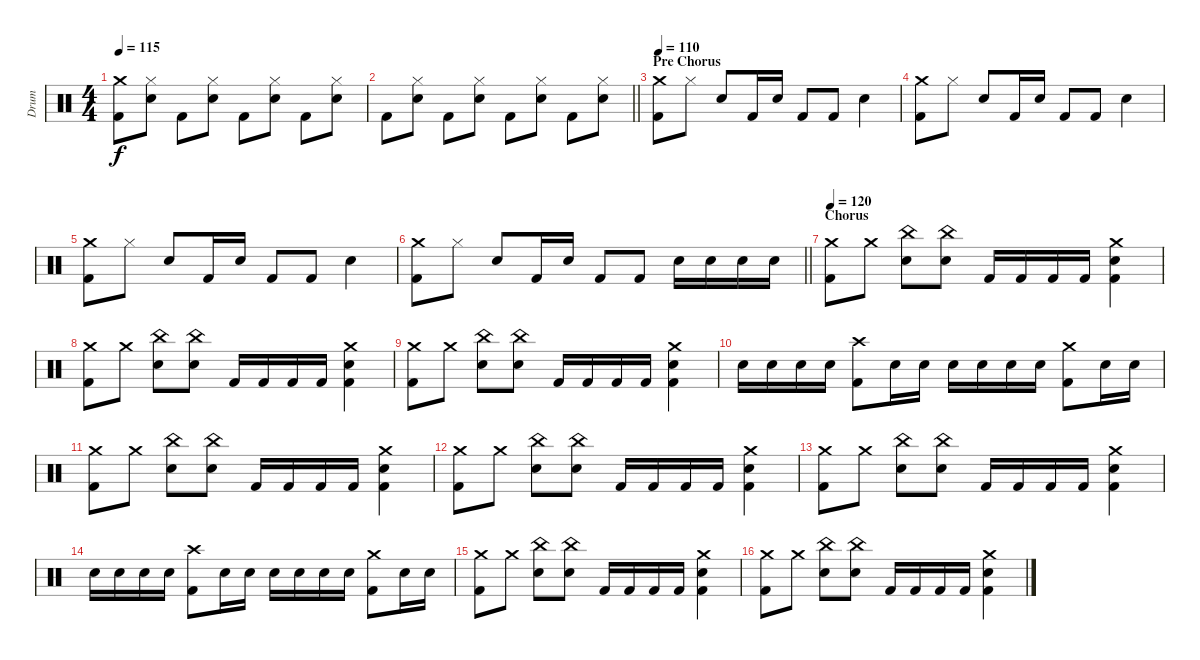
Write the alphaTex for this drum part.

\track ("Drum" "Drum") {instrument percussion}
\staff {score}
\articulation defaults
\ts (4 4)
\tempo 115
\clef neutral
\ks c
("Crash medium (hit)" "Kick (hit) 2").8{dy f} ("Hi-Hat (closed)" "Snare (hit) 2").8 "Kick (hit) 2".8 ("Hi-Hat (closed)" "Snare (hit) 2").8 "Kick (hit) 2".8 ("Hi-Hat (closed)" "Snare (hit) 2").8 "Kick (hit) 2".8 ("Hi-Hat (closed)" "Snare (hit) 2").8 |
\barLineRight lightlight "Kick (hit) 2".8
("Hi-Hat (closed)" "Snare (hit) 2").8 "Kick (hit) 2".8 ("Hi-Hat (closed)" "Snare (hit) 2").8 "Kick (hit) 2".8 ("Hi-Hat (closed)" "Snare (hit) 2").8 "Kick (hit) 2".8 ("Hi-Hat (closed)" "Snare (hit) 2").8 |
\section ("" "Pre Chorus")
\tempo 110
("Crash medium (hit)" "Kick (hit) 2").8 "Hi-Hat (closed)".8 "Snare (hit) 2".8 "Kick (hit) 2".16 "Snare (hit) 2".16 "Kick (hit) 2".8 "Kick (hit) 2".8 "Snare (hit) 2".4 |
("Crash medium (hit)" "Kick (hit) 2").8 "Hi-Hat (closed)".8 "Snare (hit) 2".8 "Kick (hit) 2".16 "Snare (hit) 2".16 "Kick (hit) 2".8 "Kick (hit) 2".8 "Snare (hit) 2".4 |
("Crash medium (hit)" "Kick (hit) 2").8 "Hi-Hat (closed)".8 "Snare (hit) 2".8 "Kick (hit) 2".16 "Snare (hit) 2".16 "Kick (hit) 2".8 "Kick (hit) 2".8 "Snare (hit) 2".4 |
\barLineRight lightlight
("Crash medium (hit)" "Kick (hit) 2").8 "Hi-Hat (closed)".8 "Snare (hit) 2".8 "Kick (hit) 2".16 "Snare (hit) 2".16 "Kick (hit) 2".8 "Kick (hit) 2".8 "Snare (hit) 2".16 "Snare (hit) 2".16 "Snare (hit) 2".16 "Snare (hit) 2".16 |
\section ("" "Chorus")
\tempo 120
("Crash medium (hit)" "Kick (hit) 2").8 "Crash medium (hit)".8 ("China (hit)" "Snare (hit) 2").8 ("China (hit)" "Snare (hit) 2").8 "Kick (hit) 2".16 "Kick (hit) 2".16 "Kick (hit) 2".16 "Kick (hit) 2".16 ("Crash medium (hit)" "Snare (hit) 2" "Kick (hit) 2").4 |
("Crash medium (hit)" "Kick (hit) 2").8 "Crash medium (hit)".8 ("China (hit)" "Snare (hit) 2").8 ("China (hit)" "Snare (hit) 2").8 "Kick (hit) 2".16 "Kick (hit) 2".16 "Kick (hit) 2".16 "Kick (hit) 2".16 ("Crash medium (hit)" "Snare (hit) 2" "Kick (hit) 2").4 |
("Crash medium (hit)" "Kick (hit) 2").8 "Crash medium (hit)".8 ("China (hit)" "Snare (hit) 2").8 ("China (hit)" "Snare (hit) 2").8 "Kick (hit) 2".16 "Kick (hit) 2".16 "Kick (hit) 2".16 "Kick (hit) 2".16 ("Crash medium (hit)" "Snare (hit) 2" "Kick (hit) 2").4 |
"Snare (hit) 2".16 "Snare (hit) 2".16 "Snare (hit) 2".16 "Snare (hit) 2".16 ("Crash high (hit)" "Kick (hit) 2").8 "Snare (hit) 2".16 "Snare (hit) 2".16 "Snare (hit) 2".16 "Snare (hit) 2".16 "Snare (hit) 2".16 "Snare (hit) 2".16 ("Crash medium (hit)" "Kick (hit) 2").8 "Snare (hit) 2".16 "Snare (hit) 2".16 |
("Crash medium (hit)" "Kick (hit) 2").8 "Crash medium (hit)".8 ("China (hit)" "Snare (hit) 2").8 ("China (hit)" "Snare (hit) 2").8 "Kick (hit) 2".16 "Kick (hit) 2".16 "Kick (hit) 2".16 "Kick (hit) 2".16 ("Crash medium (hit)" "Snare (hit) 2" "Kick (hit) 2").4 |
("Crash medium (hit)" "Kick (hit) 2").8 "Crash medium (hit)".8 ("China (hit)" "Snare (hit) 2").8 ("China (hit)" "Snare (hit) 2").8 "Kick (hit) 2".16 "Kick (hit) 2".16 "Kick (hit) 2".16 "Kick (hit) 2".16 ("Crash medium (hit)" "Snare (hit) 2" "Kick (hit) 2").4 |
("Crash medium (hit)" "Kick (hit) 2").8 "Crash medium (hit)".8 ("China (hit)" "Snare (hit) 2").8 ("China (hit)" "Snare (hit) 2").8 "Kick (hit) 2".16 "Kick (hit) 2".16 "Kick (hit) 2".16 "Kick (hit) 2".16 ("Crash medium (hit)" "Snare (hit) 2" "Kick (hit) 2").4 |
"Snare (hit) 2".16 "Snare (hit) 2".16 "Snare (hit) 2".16 "Snare (hit) 2".16 ("Crash high (hit)" "Kick (hit) 2").8 "Snare (hit) 2".16 "Snare (hit) 2".16 "Snare (hit) 2".16 "Snare (hit) 2".16 "Snare (hit) 2".16 "Snare (hit) 2".16 ("Crash medium (hit)" "Kick (hit) 2").8 "Snare (hit) 2".16 "Snare (hit) 2".16 |
("Crash medium (hit)" "Kick (hit) 2").8 "Crash medium (hit)".8 ("China (hit)" "Snare (hit) 2").8 ("China (hit)" "Snare (hit) 2").8 "Kick (hit) 2".16 "Kick (hit) 2".16 "Kick (hit) 2".16 "Kick (hit) 2".16 ("Crash medium (hit)" "Snare (hit) 2" "Kick (hit) 2").4 |
("Crash medium (hit)" "Kick (hit) 2").8 "Crash medium (hit)".8 ("China (hit)" "Snare (hit) 2").8 ("China (hit)" "Snare (hit) 2").8 "Kick (hit) 2".16 "Kick (hit) 2".16 "Kick (hit) 2".16 "Kick (hit) 2".16 ("Crash medium (hit)" "Snare (hit) 2" "Kick (hit) 2").4
